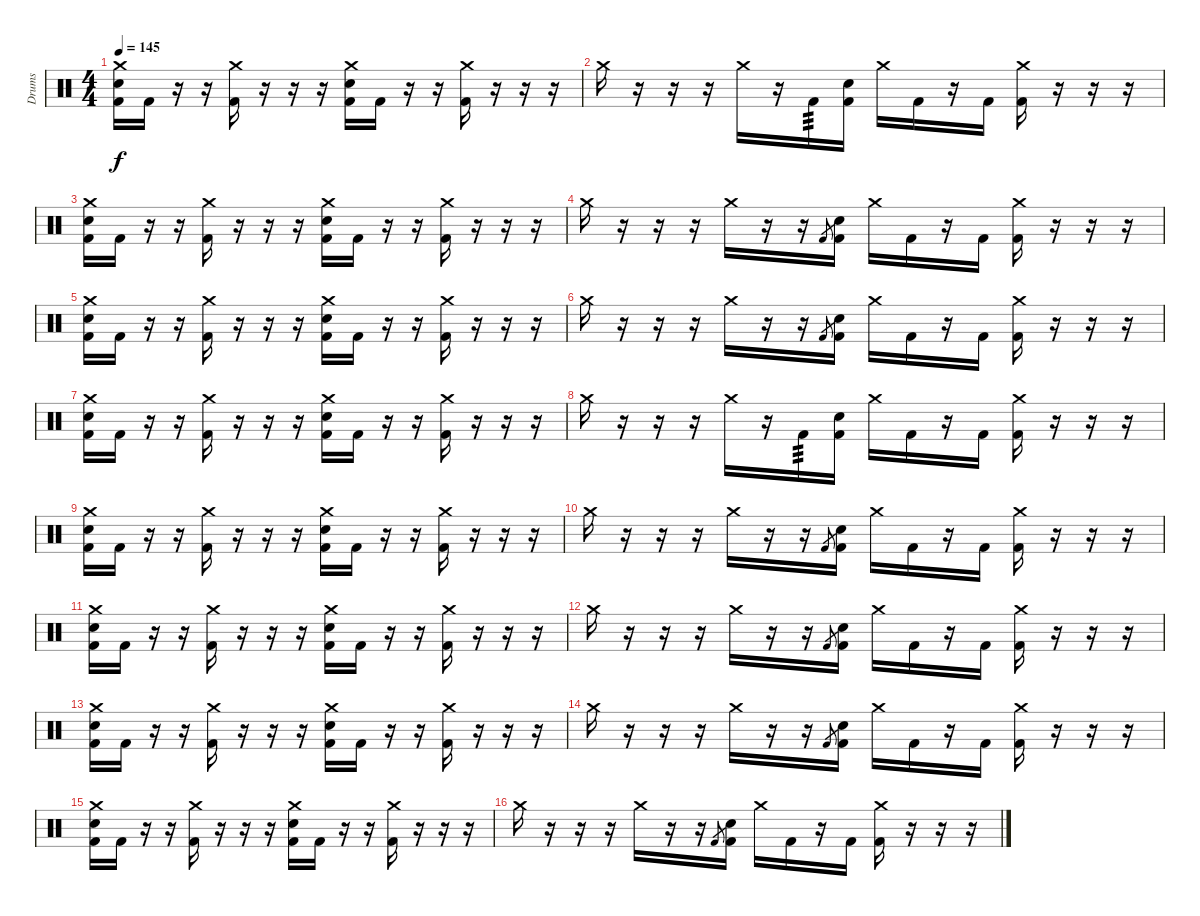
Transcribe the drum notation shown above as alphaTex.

\track ("Drums" "Drums") {instrument percussion}
\staff {score}
\articulation defaults
\ts (4 4)
\tempo 145
\clef neutral
\ks c
("Crash medium (hit)" "Electric Snare (hit)" "Kick (hit) 2").16{dy f} "Kick (hit) 2".16 r.16 r.16 ("Crash medium (hit)" "Kick (hit) 2").16 r.16 r.16 r.16 ("Crash medium (hit)" "Electric Snare (hit)" "Kick (hit) 2").16 "Kick (hit) 2".16 r.16 r.16 ("Crash medium (hit)" "Kick (hit) 2").16 r.16 r.16 r.16 |
"Crash medium (hit)".16 r.16 r.16 r.16 "Crash medium (hit)".16 r.16 "Kick (hit) 2".16{tp 3} ("Electric Snare (hit)" "Kick (hit) 2").16 "Crash medium (hit)".16 "Kick (hit) 2".16 r.16 "Kick (hit) 2".16 ("Crash medium (hit)" "Kick (hit) 2").16 r.16 r.16 r.16 |
("Crash medium (hit)" "Electric Snare (hit)" "Kick (hit) 2").16 "Kick (hit) 2".16 r.16 r.16 ("Crash medium (hit)" "Kick (hit) 2").16 r.16 r.16 r.16 ("Crash medium (hit)" "Electric Snare (hit)" "Kick (hit) 2").16 "Kick (hit) 2".16 r.16 r.16 ("Crash medium (hit)" "Kick (hit) 2").16 r.16 r.16 r.16 |
"Crash medium (hit)".16 r.16 r.16 r.16 "Crash medium (hit)".16 r.16 r.16 "Kick (hit) 2".8{gr} ("Electric Snare (hit)" "Kick (hit) 2").16 "Crash medium (hit)".16 "Kick (hit) 2".16 r.16 "Kick (hit) 2".16 ("Crash medium (hit)" "Kick (hit) 2").16 r.16 r.16 r.16 |
("Crash medium (hit)" "Electric Snare (hit)" "Kick (hit) 2").16 "Kick (hit) 2".16 r.16 r.16 ("Crash medium (hit)" "Kick (hit) 2").16 r.16 r.16 r.16 ("Crash medium (hit)" "Electric Snare (hit)" "Kick (hit) 2").16 "Kick (hit) 2".16 r.16 r.16 ("Crash medium (hit)" "Kick (hit) 2").16 r.16 r.16 r.16 |
"Crash medium (hit)".16 r.16 r.16 r.16 "Crash medium (hit)".16 r.16 r.16 "Kick (hit) 2".8{gr} ("Electric Snare (hit)" "Kick (hit) 2").16 "Crash medium (hit)".16 "Kick (hit) 2".16 r.16 "Kick (hit) 2".16 ("Crash medium (hit)" "Kick (hit) 2").16 r.16 r.16 r.16 |
("Crash medium (hit)" "Electric Snare (hit)" "Kick (hit) 2").16 "Kick (hit) 2".16 r.16 r.16 ("Crash medium (hit)" "Kick (hit) 2").16 r.16 r.16 r.16 ("Crash medium (hit)" "Electric Snare (hit)" "Kick (hit) 2").16 "Kick (hit) 2".16 r.16 r.16 ("Crash medium (hit)" "Kick (hit) 2").16 r.16 r.16 r.16 |
"Crash medium (hit)".16 r.16 r.16 r.16 "Crash medium (hit)".16 r.16 "Kick (hit) 2".16{tp 3} ("Electric Snare (hit)" "Kick (hit) 2").16 "Crash medium (hit)".16 "Kick (hit) 2".16 r.16 "Kick (hit) 2".16 ("Crash medium (hit)" "Kick (hit) 2").16 r.16 r.16 r.16 |
("Crash medium (hit)" "Electric Snare (hit)" "Kick (hit) 2").16 "Kick (hit) 2".16 r.16 r.16 ("Crash medium (hit)" "Kick (hit) 2").16 r.16 r.16 r.16 ("Crash medium (hit)" "Electric Snare (hit)" "Kick (hit) 2").16 "Kick (hit) 2".16 r.16 r.16 ("Crash medium (hit)" "Kick (hit) 2").16 r.16 r.16 r.16 |
"Crash medium (hit)".16 r.16 r.16 r.16 "Crash medium (hit)".16 r.16 r.16 "Kick (hit) 2".8{gr} ("Electric Snare (hit)" "Kick (hit) 2").16 "Crash medium (hit)".16 "Kick (hit) 2".16 r.16 "Kick (hit) 2".16 ("Crash medium (hit)" "Kick (hit) 2").16 r.16 r.16 r.16 |
("Crash medium (hit)" "Electric Snare (hit)" "Kick (hit) 2").16 "Kick (hit) 2".16 r.16 r.16 ("Crash medium (hit)" "Kick (hit) 2").16 r.16 r.16 r.16 ("Crash medium (hit)" "Electric Snare (hit)" "Kick (hit) 2").16 "Kick (hit) 2".16 r.16 r.16 ("Crash medium (hit)" "Kick (hit) 2").16 r.16 r.16 r.16 |
"Crash medium (hit)".16 r.16 r.16 r.16 "Crash medium (hit)".16 r.16 r.16 "Kick (hit) 2".8{gr} ("Electric Snare (hit)" "Kick (hit) 2").16 "Crash medium (hit)".16 "Kick (hit) 2".16 r.16 "Kick (hit) 2".16 ("Crash medium (hit)" "Kick (hit) 2").16 r.16 r.16 r.16 |
("Crash medium (hit)" "Electric Snare (hit)" "Kick (hit) 2").16 "Kick (hit) 2".16 r.16 r.16 ("Crash medium (hit)" "Kick (hit) 2").16 r.16 r.16 r.16 ("Crash medium (hit)" "Electric Snare (hit)" "Kick (hit) 2").16 "Kick (hit) 2".16 r.16 r.16 ("Crash medium (hit)" "Kick (hit) 2").16 r.16 r.16 r.16 |
"Crash medium (hit)".16 r.16 r.16 r.16 "Crash medium (hit)".16 r.16 r.16 "Kick (hit) 2".8{gr} ("Electric Snare (hit)" "Kick (hit) 2").16 "Crash medium (hit)".16 "Kick (hit) 2".16 r.16 "Kick (hit) 2".16 ("Crash medium (hit)" "Kick (hit) 2").16 r.16 r.16 r.16 |
("Crash medium (hit)" "Electric Snare (hit)" "Kick (hit) 2").16 "Kick (hit) 2".16 r.16 r.16 ("Crash medium (hit)" "Kick (hit) 2").16 r.16 r.16 r.16 ("Crash medium (hit)" "Electric Snare (hit)" "Kick (hit) 2").16 "Kick (hit) 2".16 r.16 r.16 ("Crash medium (hit)" "Kick (hit) 2").16 r.16 r.16 r.16 |
"Crash medium (hit)".16 r.16 r.16 r.16 "Crash medium (hit)".16 r.16 r.16 "Kick (hit) 2".8{gr} ("Electric Snare (hit)" "Kick (hit) 2").16 "Crash medium (hit)".16 "Kick (hit) 2".16 r.16 "Kick (hit) 2".16 ("Crash medium (hit)" "Kick (hit) 2").16 r.16 r.16 r.16
